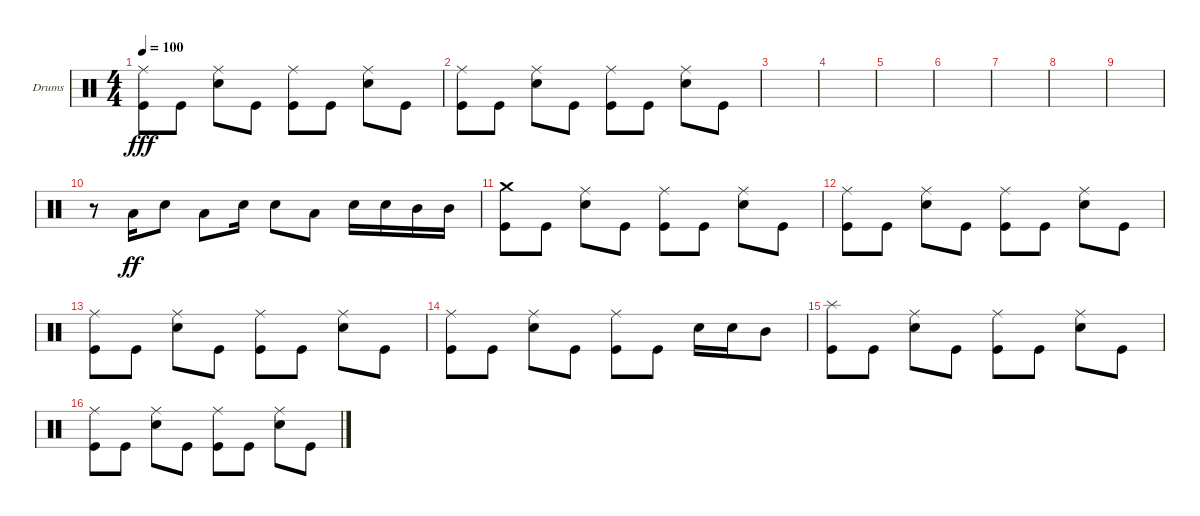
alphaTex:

\defaultSystemsLayout 4
\bracketExtendMode groupsimilarinstruments
\firstSystemTrackNameOrientation horizontal
\otherSystemsTrackNameOrientation horizontal
\track ("Барабаны" "Drums") {instrument percussion}
\staff {score}
\articulation defaults
\ts (4 4)
\tempo 100
\clef neutral
\ks c
("Kick (hit)" "Ride (middle)").8{dy fff} "Kick (hit)".8 ("Snare (hit) 2" "Ride (middle)").8 "Kick (hit)".8 ("Kick (hit)" "Ride (middle)").8 "Kick (hit)".8 ("Snare (hit) 2" "Ride (middle)").8 "Kick (hit)".8 |
("Kick (hit)" "Ride (middle)").8 "Kick (hit)".8 ("Snare (hit) 2" "Ride (middle)").8 "Kick (hit)".8 ("Kick (hit)" "Ride (middle)").8 "Kick (hit)".8 ("Snare (hit) 2" "Ride (middle)").8 "Kick (hit)".8 |
|
|
|
|
|
|
|
r.8 "Low Tom (hit)".16{dy ff} "Snare (hit) 2".8 "Low Tom (hit)".8 "Snare (hit) 2".16 "Snare (hit) 2".8 "Low Tom (hit)".8 "Snare (hit) 2".16 "Snare (hit) 2".16 "Mid Tom (hit)".16 "Mid Tom (hit)".16 |
("Crash medium (hit)" "Kick (hit)").8 "Kick (hit)".8 ("Snare (hit) 2" "Ride (middle)").8 "Kick (hit)".8 ("Kick (hit)" "Ride (middle)").8 "Kick (hit)".8 ("Snare (hit) 2" "Ride (middle)").8 "Kick (hit)".8 |
("Kick (hit)" "Ride (middle)").8 "Kick (hit)".8 ("Snare (hit) 2" "Ride (middle)").8 "Kick (hit)".8 ("Kick (hit)" "Ride (middle)").8 "Kick (hit)".8 ("Snare (hit) 2" "Ride (middle)").8 "Kick (hit)".8 |
("Kick (hit)" "Ride (middle)").8 "Kick (hit)".8 ("Snare (hit) 2" "Ride (middle)").8 "Kick (hit)".8 ("Kick (hit)" "Ride (middle)").8 "Kick (hit)".8 ("Snare (hit) 2" "Ride (middle)").8 "Kick (hit)".8 |
("Kick (hit)" "Ride (middle)").8 "Kick (hit)".8 ("Snare (hit) 2" "Ride (middle)").8 "Kick (hit)".8 ("Kick (hit)" "Ride (middle)").8 "Kick (hit)".8 "Snare (hit) 2".16 "Snare (hit) 2".16 "Mid Tom (hit)".8 |
("Kick (hit)" "Splash (hit)").8 "Kick (hit)".8 ("Snare (hit) 2" "Ride (middle)").8 "Kick (hit)".8 ("Kick (hit)" "Ride (middle)").8 "Kick (hit)".8 ("Snare (hit) 2" "Ride (middle)").8 "Kick (hit)".8 |
("Kick (hit)" "Ride (middle)").8 "Kick (hit)".8 ("Snare (hit) 2" "Ride (middle)").8 "Kick (hit)".8 ("Kick (hit)" "Ride (middle)").8 "Kick (hit)".8 ("Snare (hit) 2" "Ride (middle)").8 "Kick (hit)".8
